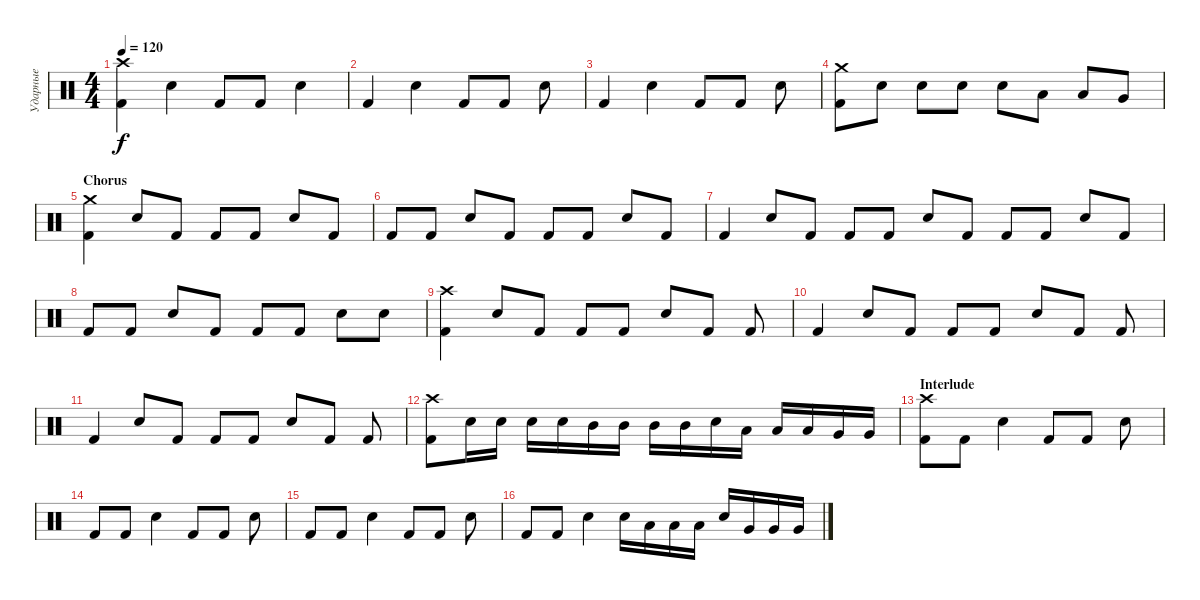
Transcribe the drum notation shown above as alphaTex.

\track ("Ударные" "Ударные") {instrument percussion}
\staff {score}
\articulation defaults
\ts (4 4)
\tempo 120
\clef neutral
\ks c
("Kick (hit) 2" "Crash high (hit)").4{dy f} "Electric Snare (hit)".4 "Kick (hit) 2".8 "Kick (hit) 2".8 "Electric Snare (hit)".4 |
"Kick (hit) 2".4 "Electric Snare (hit)".4 "Kick (hit) 2".8 "Kick (hit) 2".8 "Electric Snare (hit)".8 |
"Kick (hit) 2".4 "Electric Snare (hit)".4 "Kick (hit) 2".8 "Kick (hit) 2".8 "Electric Snare (hit)".8 |
("Kick (hit) 2" "Crash medium (hit)").8 "Electric Snare (hit)".8 "Electric Snare (hit)".8 "Electric Snare (hit)".8 "Electric Snare (hit)".8 "Low Tom (hit)".8 "Low Tom (hit)".8 "Very Low Tom (hit)".8 |
\section ("" "Chorus")
("Kick (hit) 2" "Crash medium (hit)").4 "Electric Snare (hit)".8 "Kick (hit) 2".8 "Kick (hit) 2".8 "Kick (hit) 2".8 "Electric Snare (hit)".8 "Kick (hit) 2".8 |
"Kick (hit) 2".8 "Kick (hit) 2".8 "Electric Snare (hit)".8 "Kick (hit) 2".8 "Kick (hit) 2".8 "Kick (hit) 2".8 "Electric Snare (hit)".8 "Kick (hit) 2".8 |
"Kick (hit) 2".4 "Electric Snare (hit)".8 "Kick (hit) 2".8 "Kick (hit) 2".8 "Kick (hit) 2".8 "Electric Snare (hit)".8 "Kick (hit) 2".8 "Kick (hit) 2".8 "Kick (hit) 2".8 "Electric Snare (hit)".8 "Kick (hit) 2".8 |
"Kick (hit) 2".8 "Kick (hit) 2".8 "Electric Snare (hit)".8 "Kick (hit) 2".8 "Kick (hit) 2".8 "Kick (hit) 2".8 "Electric Snare (hit)".8 "Electric Snare (hit)".8 |
("Kick (hit) 2" "Crash high (hit)").4 "Electric Snare (hit)".8 "Kick (hit) 2".8 "Kick (hit) 2".8 "Kick (hit) 2".8 "Electric Snare (hit)".8 "Kick (hit) 2".8 "Kick (hit) 2".8 |
"Kick (hit) 2".4 "Electric Snare (hit)".8 "Kick (hit) 2".8 "Kick (hit) 2".8 "Kick (hit) 2".8 "Electric Snare (hit)".8 "Kick (hit) 2".8 "Kick (hit) 2".8 |
"Kick (hit) 2".4 "Electric Snare (hit)".8 "Kick (hit) 2".8 "Kick (hit) 2".8 "Kick (hit) 2".8 "Electric Snare (hit)".8 "Kick (hit) 2".8 "Kick (hit) 2".8 |
("Kick (hit) 2" "Crash high (hit)").8 "Electric Snare (hit)".16 "Electric Snare (hit)".16 "Electric Snare (hit)".16 "Electric Snare (hit)".16 "Mid Tom (hit)".16 "Mid Tom (hit)".16 "Mid Tom (hit)".16 "Mid Tom (hit)".16 "Electric Snare (hit)".16 "Low Tom (hit)".16 "Low Tom (hit)".16 "Low Tom (hit)".16 "Very Low Tom (hit)".16 "Very Low Tom (hit)".16 |
\section ("" "Interlude")
("Kick (hit) 2" "Crash high (hit)").8 "Kick (hit) 2".8 "Electric Snare (hit)".4 "Kick (hit) 2".8 "Kick (hit) 2".8 "Electric Snare (hit)".8 |
"Kick (hit) 2".8 "Kick (hit) 2".8 "Electric Snare (hit)".4 "Kick (hit) 2".8 "Kick (hit) 2".8 "Electric Snare (hit)".8 |
"Kick (hit) 2".8 "Kick (hit) 2".8 "Electric Snare (hit)".4 "Kick (hit) 2".8 "Kick (hit) 2".8 "Electric Snare (hit)".8 |
"Kick (hit) 2".8 "Kick (hit) 2".8 "Electric Snare (hit)".4 "Electric Snare (hit)".16 "Low Tom (hit)".16 "Low Tom (hit)".16 "Low Tom (hit)".16 "Electric Snare (hit)".16 "Very Low Tom (hit)".16 "Very Low Tom (hit)".16 "Very Low Tom (hit)".16
